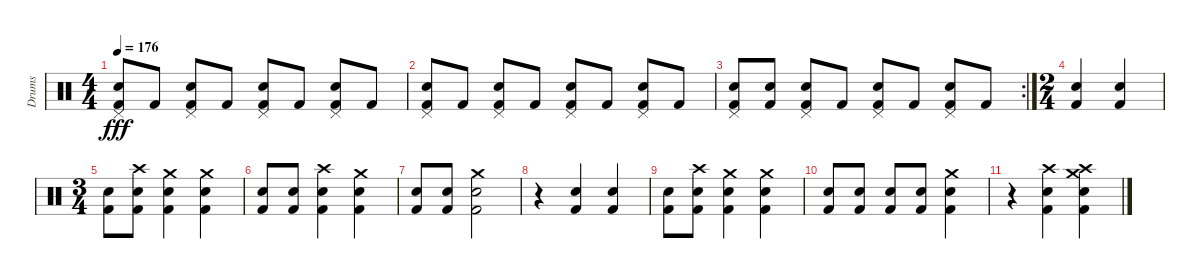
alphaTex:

\track ("Drums" "Drums") {instrument percussion}
\staff {score}
\articulation defaults
\ts (4 4)
\tempo 176
\clef neutral
\ks c
("Pedal Hi-Hat (hit)" "Snare (hit) 2" "Kick (hit) 2").8{dy fff} "Kick (hit) 2".8 ("Snare (hit) 2" "Pedal Hi-Hat (hit)" "Kick (hit) 2").8 "Kick (hit) 2".8 ("Snare (hit) 2" "Pedal Hi-Hat (hit)" "Kick (hit) 2").8 "Kick (hit) 2".8 ("Pedal Hi-Hat (hit)" "Snare (hit) 2" "Kick (hit) 2").8 "Kick (hit) 2".8 |
("Pedal Hi-Hat (hit)" "Snare (hit) 2" "Kick (hit) 2").8 "Kick (hit) 2".8 ("Snare (hit) 2" "Pedal Hi-Hat (hit)" "Kick (hit) 2").8 "Kick (hit) 2".8 ("Snare (hit) 2" "Pedal Hi-Hat (hit)" "Kick (hit) 2").8 "Kick (hit) 2".8 ("Pedal Hi-Hat (hit)" "Snare (hit) 2" "Kick (hit) 2").8 "Kick (hit) 2".8 |
\rc 2
("Pedal Hi-Hat (hit)" "Snare (hit) 2" "Kick (hit) 2").8 ("Snare (hit) 2" "Kick (hit) 2").8 ("Snare (hit) 2" "Pedal Hi-Hat (hit)" "Kick (hit) 2").8 "Kick (hit) 2".8 ("Snare (hit) 2" "Pedal Hi-Hat (hit)" "Kick (hit) 2").8 "Kick (hit) 2".8 ("Pedal Hi-Hat (hit)" "Snare (hit) 2" "Kick (hit) 2").8 "Kick (hit) 2".8 |
\ts (2 4)
("Snare (hit) 2" "Kick (hit) 2").4 ("Snare (hit) 2" "Kick (hit) 2").4 |
\ts (3 4)
("Snare (hit) 2" "Kick (hit) 2").8 ("Snare (hit) 2" "Kick (hit) 2" "Crash high (hit)").8 ("Snare (hit) 2" "Kick (hit) 2" "Crash medium (hit)").4 ("Snare (hit) 2" "Kick (hit) 2" "Crash medium (hit)").4 |
("Snare (hit) 2" "Kick (hit) 2").8 ("Snare (hit) 2" "Kick (hit) 2").8 ("Snare (hit) 2" "Kick (hit) 2" "Crash high (hit)").4 ("Snare (hit) 2" "Kick (hit) 2" "Crash medium (hit)").4 |
("Snare (hit) 2" "Kick (hit) 2").8 ("Snare (hit) 2" "Kick (hit) 2").8 ("Snare (hit) 2" "Kick (hit) 2" "Crash medium (hit)").2 |
r.4 ("Snare (hit) 2" "Kick (hit) 2").4 ("Snare (hit) 2" "Kick (hit) 2").4 |
("Snare (hit) 2" "Kick (hit) 2").8 ("Snare (hit) 2" "Kick (hit) 2" "Crash high (hit)").8 ("Snare (hit) 2" "Kick (hit) 2" "Crash medium (hit)").4 ("Snare (hit) 2" "Kick (hit) 2" "Crash medium (hit)").4 |
("Snare (hit) 2" "Kick (hit) 2").8 ("Snare (hit) 2" "Kick (hit) 2").8 ("Snare (hit) 2" "Kick (hit) 2").8 ("Snare (hit) 2" "Kick (hit) 2").8 ("Snare (hit) 2" "Kick (hit) 2" "Crash medium (hit)").4 |
r.4 ("Snare (hit) 2" "Kick (hit) 2" "Crash high (hit)").4 ("Snare (hit) 2" "Kick (hit) 2" "Crash high (hit)" "Crash medium (hit)").4
